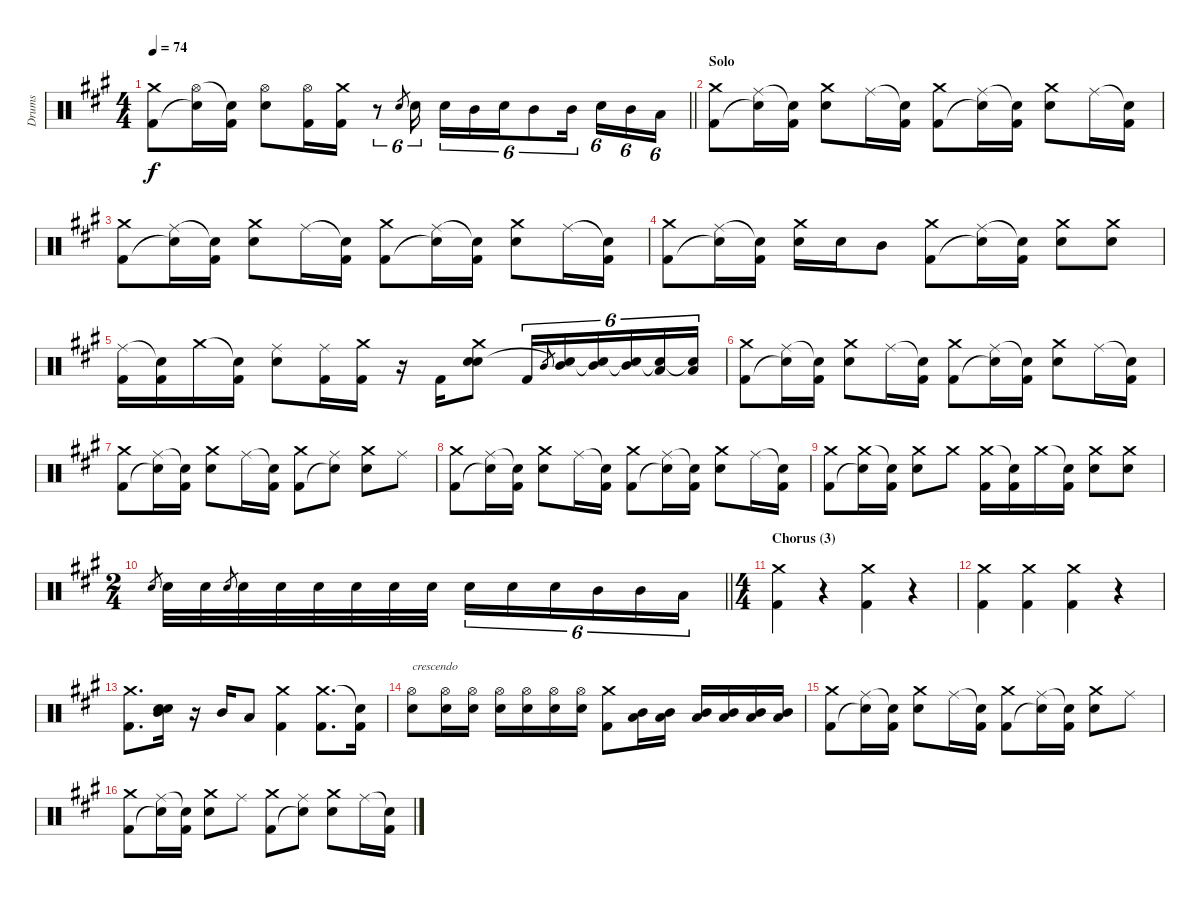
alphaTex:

\track ("Drums" "Drums") {instrument percussion}
\staff {score}
\articulation defaults
\ts (4 4)
\tempo 74
\clef neutral
\barLineRight lightlight
\ks f#minor
("Crash medium (hit)" "Kick (hit) 2").8{dy f} ("Hi-Hat (open)" "Snare (hit)"{t}).16 ("Snare (hit)"{t} "Kick (hit) 2").16 ("Hi-Hat (open)" "Electric Snare (hit)").8 ("Hi-Hat (open)" "Kick (hit) 2").16 ("Crash medium (hit)" "Kick (hit) 2").16 r.8{tu (6 4)} "Electric Snare (hit)".8{gr} "Electric Snare (hit)".16{tu (6 4)} "Electric Snare (hit)".16{tu (6 4)} "Mid Tom (hit)".16{tu (6 4)} "Electric Snare (hit)".16{tu (6 4)} "Mid Tom (hit)".8{tu (6 4)} "Mid Tom (hit)".16{tu (6 4)} "Electric Snare (hit)".16{tu (6 4)} "Mid Tom (hit)".16{tu (6 4)} "Low Floor Tom (hit)".16{tu (6 4)} |
\section ("" "Solo")
("Crash medium (hit)" "Kick (hit) 2").8 ("Ride (middle)" "Snare (hit)"{t}).16 ("Snare (hit)"{t} "Kick (hit) 2").16 ("Crash medium (hit)" "Electric Snare (hit)").8 "Ride (middle)".16 ("Snare (hit)"{t} "Kick (hit) 2").16 ("Crash medium (hit)" "Kick (hit) 2").8 ("Ride (middle)" "Snare (hit)"{t}).16 ("Snare (hit)"{t} "Kick (hit) 2").16 ("Crash medium (hit)" "Electric Snare (hit)").8 "Ride (middle)".16 ("Snare (hit)"{t} "Kick (hit) 2").16 |
("Crash medium (hit)" "Kick (hit) 2").8 ("Ride (middle)" "Snare (hit)"{t}).16 ("Snare (hit)"{t} "Kick (hit) 2").16 ("Crash medium (hit)" "Electric Snare (hit)").8 "Ride (middle)".16 ("Snare (hit)"{t} "Kick (hit) 2").16 ("Crash medium (hit)" "Kick (hit) 2").8 ("Ride (middle)" "Snare (hit)"{t}).16 ("Snare (hit)"{t} "Kick (hit) 2").16 ("Crash medium (hit)" "Electric Snare (hit)").8 "Ride (middle)".16 ("Snare (hit)"{t} "Kick (hit) 2").16 |
("Crash medium (hit)" "Kick (hit) 2").8 ("Ride (middle)" "Snare (hit)"{t}).16 ("Snare (hit)"{t} "Kick (hit) 2").16 ("Crash medium (hit)" "Electric Snare (hit)").16 "Electric Snare (hit)".16 "Mid Tom (hit)".8 ("Crash medium (hit)" "Kick (hit) 2").8 ("Ride (middle)" "Snare (hit)"{t}).16 ("Snare (hit)"{t} "Kick (hit) 2").16 ("Crash medium (hit)" "Electric Snare (hit)").8 ("Crash medium (hit)" "Electric Snare (hit)").8 |
("Ride (middle)" "Kick (hit) 2").16 ("Snare (hit)"{t} "Kick (hit) 2").16 "Crash medium (hit)".16 ("Snare (hit)"{t} "Kick (hit) 2").16 ("Ride (middle)" "Electric Snare (hit)").8 ("Ride (middle)" "Kick (hit) 2").16 ("Crash medium (hit)" "Kick (hit) 2").16 r.16 "Kick (hit) 2".16 ("Crash medium (hit)" "Electric Snare (hit)" "Snare (hit)").8 "Kick (hit) 2".16{tu (6 4)} "Mid Tom (hit)".8{gr} ("Mid Tom (hit)" "Snare (hit)"{t}).16{tu (6 4)} ("Mid Tom (hit)" "Snare (hit)"{t}).16{tu (6 4)} ("Mid Tom (hit)" "Snare (hit)"{t}).16{tu (6 4)} ("Low Floor Tom (hit)" "Snare (hit)"{t}).16{tu (6 4)} ("Low Floor Tom (hit)" "Snare (hit)"{t}).16{tu (6 4)} |
("Crash medium (hit)" "Kick (hit) 2").8 ("Ride (middle)" "Snare (hit)"{t}).16 ("Snare (hit)"{t} "Kick (hit) 2").16 ("Crash medium (hit)" "Electric Snare (hit)").8 "Ride (middle)".16 ("Snare (hit)"{t} "Kick (hit) 2").16 ("Crash medium (hit)" "Kick (hit) 2").8 ("Ride (middle)" "Snare (hit)"{t}).16 ("Snare (hit)"{t} "Kick (hit) 2").16 ("Crash medium (hit)" "Electric Snare (hit)").8 "Ride (middle)".16 ("Snare (hit)"{t} "Kick (hit) 2").16 |
("Crash medium (hit)" "Kick (hit) 2").8 ("Ride (middle)" "Snare (hit)"{t}).16 ("Snare (hit)"{t} "Kick (hit) 2").16 ("Crash medium (hit)" "Electric Snare (hit)").8 "Ride (middle)".16 ("Snare (hit)"{t} "Kick (hit) 2").16 ("Crash medium (hit)" "Kick (hit) 2").8 ("Ride (middle)" "Snare (hit)"{t}).8 ("Crash medium (hit)" "Electric Snare (hit)").8 "Ride (middle)".8 |
("Crash medium (hit)" "Kick (hit) 2").8 ("Ride (middle)" "Snare (hit)"{t}).16 ("Snare (hit)"{t} "Kick (hit) 2").16 ("Crash medium (hit)" "Electric Snare (hit)").8 "Ride (middle)".16 ("Snare (hit)"{t} "Kick (hit) 2").16 ("Crash medium (hit)" "Kick (hit) 2").8 ("Ride (middle)" "Snare (hit)"{t}).16 ("Snare (hit)"{t} "Kick (hit) 2").16 ("Crash medium (hit)" "Electric Snare (hit)").8 "Ride (middle)".16 ("Snare (hit)"{t} "Kick (hit) 2").16 |
("Crash medium (hit)" "Kick (hit) 2").8 ("Crash medium (hit)" "Snare (hit)"{t}).16 ("Snare (hit)"{t} "Kick (hit) 2").16 ("Crash medium (hit)" "Electric Snare (hit)").8 "Crash medium (hit)".8 ("Crash medium (hit)" "Kick (hit) 2").16 ("Snare (hit)"{t} "Kick (hit) 2").16 "Crash medium (hit)".16 ("Snare (hit)"{t} "Kick (hit) 2").16 ("Crash medium (hit)" "Electric Snare (hit)").8 ("Crash medium (hit)" "Electric Snare (hit)").8 |
\ts (2 4)
\barLineRight lightlight "Electric Snare (hit)".8{gr} "Electric Snare (hit)".32 "Electric Snare (hit)".32 "Electric Snare (hit)".8{gr} "Electric Snare (hit)".32 "Electric Snare (hit)".32 "Electric Snare (hit)".32 "Electric Snare (hit)".32 "Electric Snare (hit)".32 "Electric Snare (hit)".32 "Electric Snare (hit)".16{tu (6 4)} "Electric Snare (hit)".16{tu (6 4)} "Electric Snare (hit)".16{tu (6 4)} "Mid Tom (hit)".16{tu (6 4)} "Mid Tom (hit)".16{tu (6 4)} "Low Floor Tom (hit)".16{tu (6 4)}
|
\ts (4 4)
\section ("" "Chorus (3)")
\ks a
("Crash medium (hit)" "Kick (hit) 2").4 r.4 ("Crash medium (hit)" "Kick (hit) 2").4 r.4 |
("Crash medium (hit)" "Kick (hit) 2").4 ("Crash medium (hit)" "Kick (hit) 2").4 ("Crash medium (hit)" "Kick (hit) 2").4 r.4 |
("Crash medium (hit)" "Kick (hit) 2").8{d} ("Electric Snare (hit)" "Mid Tom (hit)" "Snare (hit)").16 r.16 "Mid Tom (hit)".16 "Low Floor Tom (hit)".8 ("Crash medium (hit)" "Kick (hit) 2").4 ("Crash medium (hit)" "Kick (hit) 2").8{d} ("Snare (hit)"{t} "Kick (hit) 2").16 |
("Hi-Hat (open)" "Electric Snare (hit)").8{txt "crescendo"} ("Hi-Hat (open)" "Electric Snare (hit)").16 ("Hi-Hat (open)" "Electric Snare (hit)").16 ("Hi-Hat (open)" "Electric Snare (hit)").16 ("Hi-Hat (open)" "Electric Snare (hit)").16 ("Hi-Hat (open)" "Electric Snare (hit)").16 ("Hi-Hat (open)" "Electric Snare (hit)").16 ("Crash medium (hit)" "Kick (hit) 2").8 ("Mid Tom (hit)" "Low Floor Tom (hit)").16 ("Mid Tom (hit)" "Low Floor Tom (hit)").16 ("Mid Tom (hit)" "Low Floor Tom (hit)").16 ("Mid Tom (hit)" "Low Floor Tom (hit)").16 ("Mid Tom (hit)" "Low Floor Tom (hit)").16 ("Mid Tom (hit)" "Low Floor Tom (hit)").16 |
("Crash medium (hit)" "Kick (hit) 2").8 ("Ride (middle)" "Snare (hit)"{t}).16 ("Snare (hit)"{t} "Kick (hit) 2").16 ("Crash medium (hit)" "Electric Snare (hit)").8 "Ride (middle)".16 ("Snare (hit)"{t} "Kick (hit) 2").16 ("Crash medium (hit)" "Kick (hit) 2").8 ("Ride (middle)" "Snare (hit)"{t}).16 ("Snare (hit)"{t} "Kick (hit) 2").16 ("Crash medium (hit)" "Electric Snare (hit)").8 "Ride (middle)".8 |
("Crash medium (hit)" "Kick (hit) 2").8 ("Ride (middle)" "Snare (hit)"{t}).16 ("Snare (hit)"{t} "Kick (hit) 2").16 ("Crash medium (hit)" "Electric Snare (hit)").8 "Ride (middle)".8 ("Crash medium (hit)" "Kick (hit) 2").8 ("Ride (middle)" "Snare (hit)"{t}).8 ("Crash medium (hit)" "Electric Snare (hit)").8 "Ride (middle)".16 ("Snare (hit)"{t} "Kick (hit) 2").16
